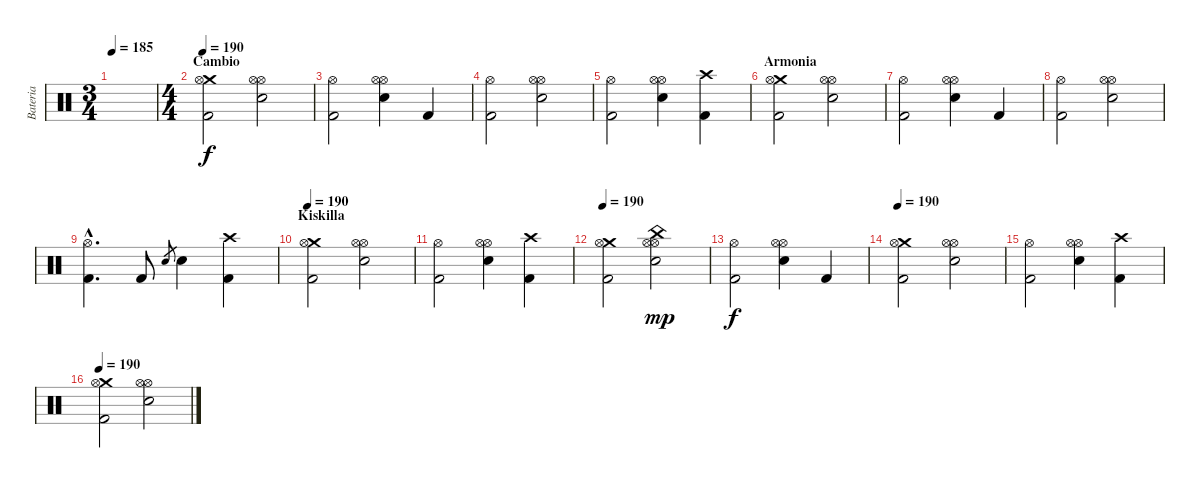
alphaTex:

\track ("Bateria" "Bateria") {instrument percussion}
\staff {score}
\articulation defaults
\ts (3 4)
\tempo 185
\clef neutral
\ks c
|
\ts (4 4)
\section ("" "Cambio")
\tempo 190
("Crash medium (hit)" "Hi-Hat (open)" "Kick (hit) 2").2 ("Hi-Hat (open)" "Snare (hit) 2" "Hi-Hat (open)").2 |
("Hi-Hat (open)" "Kick (hit) 2").2 ("Hi-Hat (open)" "Snare (hit) 2" "Hi-Hat (open)").4 "Kick (hit) 2".4 |
("Hi-Hat (open)" "Kick (hit) 2").2 ("Hi-Hat (open)" "Snare (hit) 2" "Hi-Hat (open)").2 |
("Hi-Hat (open)" "Kick (hit) 2").2 ("Hi-Hat (open)" "Snare (hit) 2" "Hi-Hat (open)").4 ("Crash high (hit)" "Kick (hit) 2").4 |
\section ("" "Armonia")
("Crash medium (hit)" "Hi-Hat (open)" "Kick (hit) 2").2 ("Hi-Hat (open)" "Snare (hit) 2" "Hi-Hat (open)").2 |
("Hi-Hat (open)" "Kick (hit) 2").2 ("Hi-Hat (open)" "Snare (hit) 2" "Hi-Hat (open)").4 "Kick (hit) 2".4 |
("Hi-Hat (open)" "Kick (hit) 2").2 ("Hi-Hat (open)" "Snare (hit) 2" "Hi-Hat (open)").2 |
("Hi-Hat (open)"{hac} "Kick (hit) 2"{hac}).4{d} "Kick (hit) 2".8 "Snare (hit) 2".8{gr} "Snare (hit) 2".4 ("Crash high (hit)" "Kick (hit) 2").4 |
\section ("" "Kiskilla")
\tempo 190
("Crash medium (hit)" "Hi-Hat (open)" "Kick (hit) 2").2 ("Hi-Hat (open)" "Snare (hit) 2" "Hi-Hat (open)").2 |
("Hi-Hat (open)" "Kick (hit) 2").2 ("Hi-Hat (open)" "Snare (hit) 2" "Hi-Hat (open)").4 ("Crash high (hit)" "Kick (hit) 2").4 |
\tempo 190
("Crash medium (hit)" "Hi-Hat (open)" "Kick (hit) 2").2 ("Hi-Hat (open)" "China (hit)" "Snare (hit) 2" "Hi-Hat (open)").2{dy mp} |
("Hi-Hat (open)" "Kick (hit) 2").2{dy f} ("Hi-Hat (open)" "Snare (hit) 2" "Hi-Hat (open)").4 "Kick (hit) 2".4 |
\tempo 190
("Crash medium (hit)" "Hi-Hat (open)" "Kick (hit) 2").2 ("Hi-Hat (open)" "Snare (hit) 2" "Hi-Hat (open)").2 |
("Hi-Hat (open)" "Kick (hit) 2").2 ("Hi-Hat (open)" "Snare (hit) 2" "Hi-Hat (open)").4 ("Crash high (hit)" "Kick (hit) 2").4 |
\tempo 190
("Crash medium (hit)" "Hi-Hat (open)" "Kick (hit) 2").2 ("Hi-Hat (open)" "Snare (hit) 2" "Hi-Hat (open)").2
